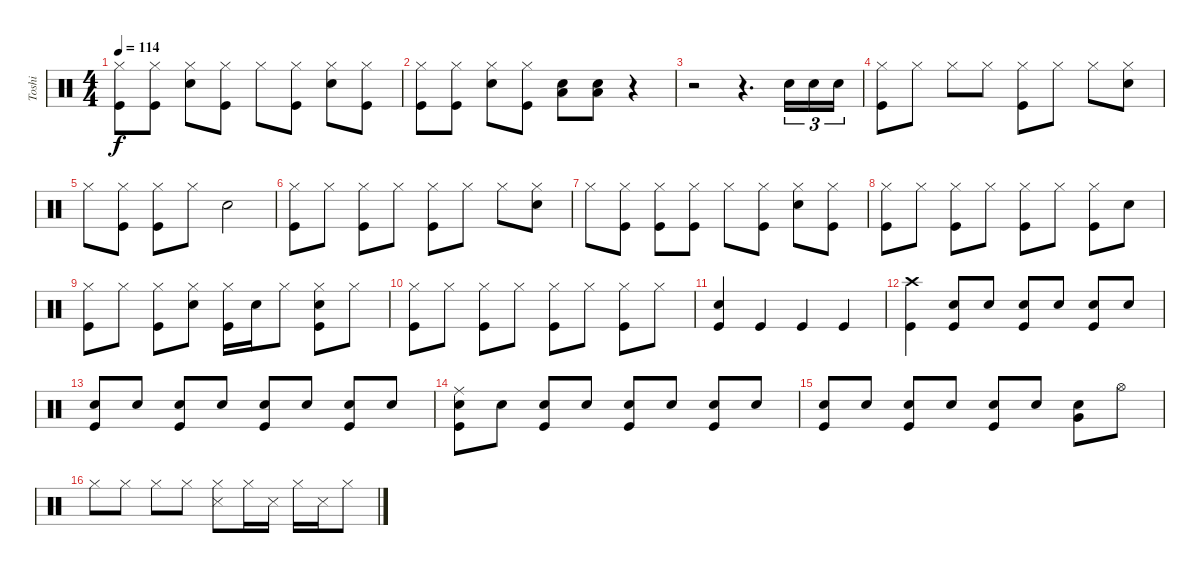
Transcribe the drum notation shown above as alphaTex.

\track ("Toshi" "Toshi") {instrument percussion}
\staff {score}
\articulation defaults
\ts (4 4)
\tempo 114
\clef neutral
\ks c
("Hi-Hat (closed)" "Kick (hit)").8{dy f} ("Hi-Hat (closed)" "Kick (hit)").8 ("Hi-Hat (closed)" "Snare (hit) 2").8 ("Hi-Hat (closed)" "Kick (hit)").8 "Hi-Hat (closed)".8 ("Hi-Hat (closed)" "Kick (hit)").8 ("Hi-Hat (closed)" "Snare (hit) 2").8 ("Hi-Hat (closed)" "Kick (hit)").8 |
("Hi-Hat (closed)" "Kick (hit)").8 ("Hi-Hat (closed)" "Kick (hit)").8 ("Hi-Hat (closed)" "Snare (hit) 2").8 ("Hi-Hat (closed)" "Kick (hit)").8 ("Low Tom (hit)" "Snare (hit) 2").8 ("Low Tom (hit)" "Snare (hit) 2").8 r.4 |
r.2 r.4{d} "Snare (hit) 2".16{tu (3 2)} "Snare (hit) 2".16{tu (3 2)} "Snare (hit) 2".16{tu (3 2)} |
("Hi-Hat (closed)" "Kick (hit)").8 "Hi-Hat (closed)".8 "Hi-Hat (closed)".8 "Hi-Hat (closed)".8 ("Hi-Hat (closed)" "Kick (hit)").8 "Hi-Hat (closed)".8 "Hi-Hat (closed)".8 ("Hi-Hat (closed)" "Snare (hit) 2").8 |
"Hi-Hat (closed)".8 ("Hi-Hat (closed)" "Kick (hit)").8 ("Hi-Hat (closed)" "Kick (hit)").8 "Hi-Hat (closed)".8 "Snare (hit) 2".2 |
("Hi-Hat (closed)" "Kick (hit)").8 "Hi-Hat (closed)".8 ("Hi-Hat (closed)" "Kick (hit)").8 "Hi-Hat (closed)".8 ("Hi-Hat (closed)" "Kick (hit)").8 "Hi-Hat (closed)".8 "Hi-Hat (closed)".8 ("Hi-Hat (closed)" "Snare (hit) 2").8 |
"Hi-Hat (closed)".8 ("Hi-Hat (closed)" "Kick (hit)").8 ("Hi-Hat (closed)" "Kick (hit)").8 ("Hi-Hat (closed)" "Kick (hit)").8 "Hi-Hat (closed)".8 ("Hi-Hat (closed)" "Kick (hit)").8 ("Hi-Hat (closed)" "Snare (hit) 2").8 ("Hi-Hat (closed)" "Kick (hit)").8 |
("Hi-Hat (closed)" "Kick (hit)").8 "Hi-Hat (closed)".8 ("Hi-Hat (closed)" "Kick (hit)").8 "Hi-Hat (closed)".8 ("Hi-Hat (closed)" "Kick (hit)").8 "Hi-Hat (closed)".8 ("Hi-Hat (closed)" "Kick (hit)").8 "Snare (hit) 2".8 |
("Hi-Hat (closed)" "Kick (hit)").8 "Hi-Hat (closed)".8 ("Hi-Hat (closed)" "Kick (hit)").8 ("Hi-Hat (closed)" "Snare (hit) 2").8 ("Hi-Hat (closed)" "Kick (hit)").16 "Snare (hit) 2".16 "Hi-Hat (closed)".8 ("Hi-Hat (closed)" "Snare (hit) 2" "Kick (hit)").8 "Hi-Hat (closed)".8 |
("Hi-Hat (closed)" "Kick (hit)").8 "Hi-Hat (closed)".8 ("Hi-Hat (closed)" "Kick (hit)").8 "Hi-Hat (closed)".8 ("Hi-Hat (closed)" "Kick (hit)").8 "Hi-Hat (closed)".8 ("Hi-Hat (closed)" "Kick (hit)").8 "Hi-Hat (closed)".8 |
("Snare (hit) 2" "Kick (hit)").4 "Kick (hit)".4 "Kick (hit)".4 "Kick (hit)".4 |
("Crash high (hit)" "Kick (hit)").4 ("Snare (hit) 2" "Kick (hit)").8 "Snare (hit) 2".8 ("Snare (hit) 2" "Kick (hit)").8 "Snare (hit) 2".8 ("Snare (hit) 2" "Kick (hit)").8 "Snare (hit) 2".8 |
("Snare (hit) 2" "Kick (hit)").8 "Snare (hit) 2".8 ("Snare (hit) 2" "Kick (hit)").8 "Snare (hit) 2".8 ("Snare (hit) 2" "Kick (hit)").8 "Snare (hit) 2".8 ("Snare (hit) 2" "Kick (hit)").8 "Snare (hit) 2".8 |
("Ride (middle)" "Snare (hit) 2" "Kick (hit)").8 "Snare (hit) 2".8 ("Snare (hit) 2" "Kick (hit)").8 "Snare (hit) 2".8 ("Snare (hit) 2" "Kick (hit)").8 "Snare (hit) 2".8 ("Snare (hit) 2" "Kick (hit)").8 "Snare (hit) 2".8 |
("Snare (hit) 2" "Kick (hit)").8 "Snare (hit) 2".8 ("Snare (hit) 2" "Kick (hit)").8 "Snare (hit) 2".8 ("Snare (hit) 2" "Kick (hit)").8 "Snare (hit) 2".8 ("Snare (hit) 2" "Very Low Tom (hit)").8 "Hi-Hat (open)".8 |
"Hi-Hat (closed)".8 "Hi-Hat (closed)".8 "Hi-Hat (closed)".8 "Hi-Hat (closed)".8 ("Hi-Hat (closed)" "Snare (side stick) 3").8 "Hi-Hat (closed)".16 "Snare (side stick) 3".16 "Hi-Hat (closed)".16 "Snare (side stick) 3".16 "Hi-Hat (closed)".8
